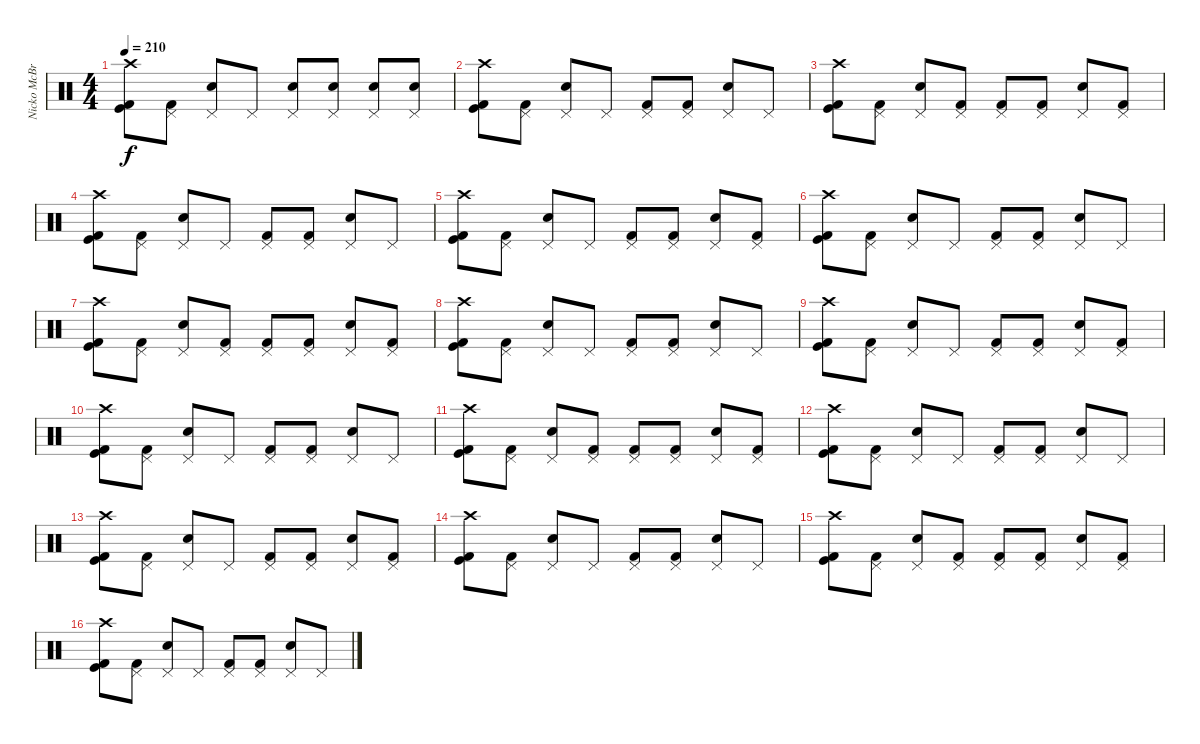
\track ("Nicko McBrain" "Nicko McBr") {instrument percussion}
\staff {score}
\articulation defaults
\ts (4 4)
\tempo 210
\clef neutral
\ks c
("Crash high (hit)" "Kick (hit)" "Kick (hit) 2").8{dy f} ("Pedal Hi-Hat (hit)" "Kick (hit) 2").8 ("Pedal Hi-Hat (hit)" "Snare (hit) 2").8 "Pedal Hi-Hat (hit)".8 ("Pedal Hi-Hat (hit)" "Snare (hit) 2").8 ("Pedal Hi-Hat (hit)" "Snare (hit) 2").8 ("Pedal Hi-Hat (hit)" "Snare (hit) 2").8 ("Pedal Hi-Hat (hit)" "Snare (hit) 2").8 |
("Crash high (hit)" "Kick (hit)" "Kick (hit) 2").8 ("Pedal Hi-Hat (hit)" "Kick (hit) 2").8 ("Pedal Hi-Hat (hit)" "Snare (hit) 2").8 "Pedal Hi-Hat (hit)".8 ("Pedal Hi-Hat (hit)" "Kick (hit) 2").8 ("Pedal Hi-Hat (hit)" "Kick (hit) 2").8 ("Pedal Hi-Hat (hit)" "Snare (hit) 2").8 "Pedal Hi-Hat (hit)".8 |
("Crash high (hit)" "Kick (hit)" "Kick (hit) 2").8 ("Pedal Hi-Hat (hit)" "Kick (hit) 2").8 ("Pedal Hi-Hat (hit)" "Snare (hit) 2").8 ("Pedal Hi-Hat (hit)" "Kick (hit) 2").8 ("Pedal Hi-Hat (hit)" "Kick (hit) 2").8 ("Pedal Hi-Hat (hit)" "Kick (hit) 2").8 ("Pedal Hi-Hat (hit)" "Snare (hit) 2").8 ("Pedal Hi-Hat (hit)" "Kick (hit) 2").8 |
("Crash high (hit)" "Kick (hit)" "Kick (hit) 2").8 ("Pedal Hi-Hat (hit)" "Kick (hit) 2").8 ("Pedal Hi-Hat (hit)" "Snare (hit) 2").8 "Pedal Hi-Hat (hit)".8 ("Pedal Hi-Hat (hit)" "Kick (hit) 2").8 ("Pedal Hi-Hat (hit)" "Kick (hit) 2").8 ("Pedal Hi-Hat (hit)" "Snare (hit) 2").8 "Pedal Hi-Hat (hit)".8 |
("Crash high (hit)" "Kick (hit)" "Kick (hit) 2").8 ("Pedal Hi-Hat (hit)" "Kick (hit) 2").8 ("Pedal Hi-Hat (hit)" "Snare (hit) 2").8 "Pedal Hi-Hat (hit)".8 ("Pedal Hi-Hat (hit)" "Kick (hit) 2").8 ("Pedal Hi-Hat (hit)" "Kick (hit) 2").8 ("Pedal Hi-Hat (hit)" "Snare (hit) 2").8 ("Pedal Hi-Hat (hit)" "Kick (hit) 2").8 |
("Crash high (hit)" "Kick (hit)" "Kick (hit) 2").8 ("Pedal Hi-Hat (hit)" "Kick (hit) 2").8 ("Pedal Hi-Hat (hit)" "Snare (hit) 2").8 "Pedal Hi-Hat (hit)".8 ("Pedal Hi-Hat (hit)" "Kick (hit) 2").8 ("Pedal Hi-Hat (hit)" "Kick (hit) 2").8 ("Pedal Hi-Hat (hit)" "Snare (hit) 2").8 "Pedal Hi-Hat (hit)".8 |
("Crash high (hit)" "Kick (hit)" "Kick (hit) 2").8 ("Pedal Hi-Hat (hit)" "Kick (hit) 2").8 ("Pedal Hi-Hat (hit)" "Snare (hit) 2").8 ("Pedal Hi-Hat (hit)" "Kick (hit) 2").8 ("Pedal Hi-Hat (hit)" "Kick (hit) 2").8 ("Pedal Hi-Hat (hit)" "Kick (hit) 2").8 ("Pedal Hi-Hat (hit)" "Snare (hit) 2").8 ("Pedal Hi-Hat (hit)" "Kick (hit) 2").8 |
("Crash high (hit)" "Kick (hit)" "Kick (hit) 2").8 ("Pedal Hi-Hat (hit)" "Kick (hit) 2").8 ("Pedal Hi-Hat (hit)" "Snare (hit) 2").8 "Pedal Hi-Hat (hit)".8 ("Pedal Hi-Hat (hit)" "Kick (hit) 2").8 ("Pedal Hi-Hat (hit)" "Kick (hit) 2").8 ("Pedal Hi-Hat (hit)" "Snare (hit) 2").8 "Pedal Hi-Hat (hit)".8 |
("Crash high (hit)" "Kick (hit)" "Kick (hit) 2").8 ("Pedal Hi-Hat (hit)" "Kick (hit) 2").8 ("Pedal Hi-Hat (hit)" "Snare (hit) 2").8 "Pedal Hi-Hat (hit)".8 ("Pedal Hi-Hat (hit)" "Kick (hit) 2").8 ("Pedal Hi-Hat (hit)" "Kick (hit) 2").8 ("Pedal Hi-Hat (hit)" "Snare (hit) 2").8 ("Pedal Hi-Hat (hit)" "Kick (hit) 2").8 |
("Crash high (hit)" "Kick (hit)" "Kick (hit) 2").8 ("Pedal Hi-Hat (hit)" "Kick (hit) 2").8 ("Pedal Hi-Hat (hit)" "Snare (hit) 2").8 "Pedal Hi-Hat (hit)".8 ("Pedal Hi-Hat (hit)" "Kick (hit) 2").8 ("Pedal Hi-Hat (hit)" "Kick (hit) 2").8 ("Pedal Hi-Hat (hit)" "Snare (hit) 2").8 "Pedal Hi-Hat (hit)".8 |
("Crash high (hit)" "Kick (hit)" "Kick (hit) 2").8 ("Pedal Hi-Hat (hit)" "Kick (hit) 2").8 ("Pedal Hi-Hat (hit)" "Snare (hit) 2").8 ("Pedal Hi-Hat (hit)" "Kick (hit) 2").8 ("Pedal Hi-Hat (hit)" "Kick (hit) 2").8 ("Pedal Hi-Hat (hit)" "Kick (hit) 2").8 ("Pedal Hi-Hat (hit)" "Snare (hit) 2").8 ("Pedal Hi-Hat (hit)" "Kick (hit) 2").8 |
("Crash high (hit)" "Kick (hit)" "Kick (hit) 2").8 ("Pedal Hi-Hat (hit)" "Kick (hit) 2").8 ("Pedal Hi-Hat (hit)" "Snare (hit) 2").8 "Pedal Hi-Hat (hit)".8 ("Pedal Hi-Hat (hit)" "Kick (hit) 2").8 ("Pedal Hi-Hat (hit)" "Kick (hit) 2").8 ("Pedal Hi-Hat (hit)" "Snare (hit) 2").8 "Pedal Hi-Hat (hit)".8 |
("Crash high (hit)" "Kick (hit)" "Kick (hit) 2").8 ("Pedal Hi-Hat (hit)" "Kick (hit) 2").8 ("Pedal Hi-Hat (hit)" "Snare (hit) 2").8 "Pedal Hi-Hat (hit)".8 ("Pedal Hi-Hat (hit)" "Kick (hit) 2").8 ("Pedal Hi-Hat (hit)" "Kick (hit) 2").8 ("Pedal Hi-Hat (hit)" "Snare (hit) 2").8 ("Pedal Hi-Hat (hit)" "Kick (hit) 2").8 |
("Crash high (hit)" "Kick (hit)" "Kick (hit) 2").8 ("Pedal Hi-Hat (hit)" "Kick (hit) 2").8 ("Pedal Hi-Hat (hit)" "Snare (hit) 2").8 "Pedal Hi-Hat (hit)".8 ("Pedal Hi-Hat (hit)" "Kick (hit) 2").8 ("Pedal Hi-Hat (hit)" "Kick (hit) 2").8 ("Pedal Hi-Hat (hit)" "Snare (hit) 2").8 "Pedal Hi-Hat (hit)".8 |
("Crash high (hit)" "Kick (hit)" "Kick (hit) 2").8 ("Pedal Hi-Hat (hit)" "Kick (hit) 2").8 ("Pedal Hi-Hat (hit)" "Snare (hit) 2").8 ("Pedal Hi-Hat (hit)" "Kick (hit) 2").8 ("Pedal Hi-Hat (hit)" "Kick (hit) 2").8 ("Pedal Hi-Hat (hit)" "Kick (hit) 2").8 ("Pedal Hi-Hat (hit)" "Snare (hit) 2").8 ("Pedal Hi-Hat (hit)" "Kick (hit) 2").8 |
("Crash high (hit)" "Kick (hit)" "Kick (hit) 2").8 ("Pedal Hi-Hat (hit)" "Kick (hit) 2").8 ("Pedal Hi-Hat (hit)" "Snare (hit) 2").8 "Pedal Hi-Hat (hit)".8 ("Pedal Hi-Hat (hit)" "Kick (hit) 2").8 ("Pedal Hi-Hat (hit)" "Kick (hit) 2").8 ("Pedal Hi-Hat (hit)" "Snare (hit) 2").8 "Pedal Hi-Hat (hit)".8
